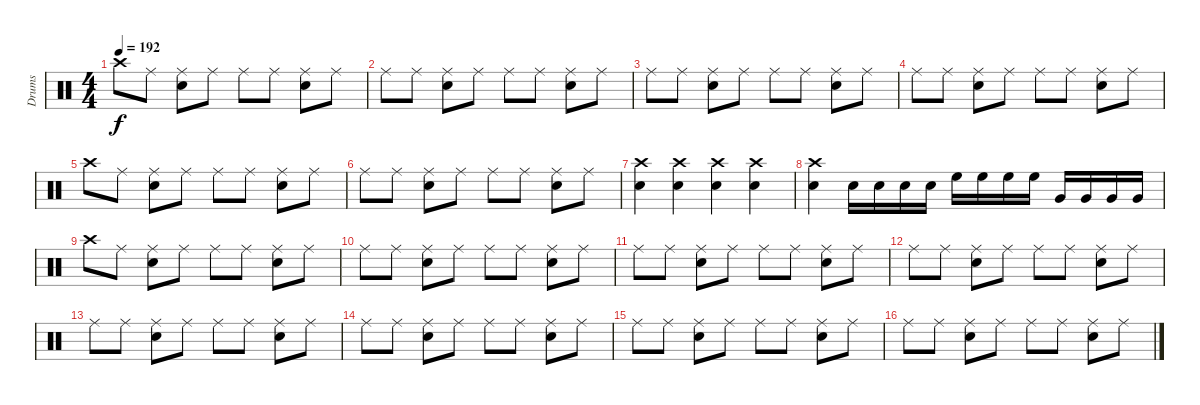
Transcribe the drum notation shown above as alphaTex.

\track ("Drums" "Drums") {instrument percussion}
\staff {score}
\articulation defaults
\ts (4 4)
\tempo 192
\clef neutral
\ks c "Crash high (hit)".8{dy f} "Ride (middle)".8
("Ride (middle)" "Snare (hit) 2").8 "Ride (middle)".8 "Ride (middle)".8 "Ride (middle)".8 ("Ride (middle)" "Snare (hit) 2").8 "Ride (middle)".8 |
"Ride (middle)".8 "Ride (middle)".8 ("Ride (middle)" "Snare (hit) 2").8 "Ride (middle)".8 "Ride (middle)".8 "Ride (middle)".8 ("Ride (middle)" "Snare (hit) 2").8 "Ride (middle)".8 |
"Ride (middle)".8 "Ride (middle)".8 ("Ride (middle)" "Snare (hit) 2").8 "Ride (middle)".8 "Ride (middle)".8 "Ride (middle)".8 ("Ride (middle)" "Snare (hit) 2").8 "Ride (middle)".8 |
"Ride (middle)".8 "Ride (middle)".8 ("Ride (middle)" "Snare (hit) 2").8 "Ride (middle)".8 "Ride (middle)".8 "Ride (middle)".8 ("Ride (middle)" "Snare (hit) 2").8 "Ride (middle)".8 |
"Crash high (hit)".8 "Ride (middle)".8 ("Ride (middle)" "Snare (hit) 2").8 "Ride (middle)".8 "Ride (middle)".8 "Ride (middle)".8 ("Ride (middle)" "Snare (hit) 2").8 "Ride (middle)".8 |
"Ride (middle)".8 "Ride (middle)".8 ("Ride (middle)" "Snare (hit) 2").8 "Ride (middle)".8 "Ride (middle)".8 "Ride (middle)".8 ("Ride (middle)" "Snare (hit) 2").8 "Ride (middle)".8 |
("Crash high (hit)" "Snare (hit) 2").4 ("Crash high (hit)" "Snare (hit) 2").4 ("Crash high (hit)" "Snare (hit) 2").4 ("Crash high (hit)" "Snare (hit) 2").4 |
("Crash high (hit)" "Snare (hit) 2").4 "Snare (hit) 2".16 "Snare (hit) 2".16 "Snare (hit) 2".16 "Snare (hit) 2".16 "High Floor Tom (hit)".16 "High Floor Tom (hit)".16 "High Floor Tom (hit)".16 "High Floor Tom (hit)".16 "Very Low Tom (hit)".16 "Very Low Tom (hit)".16 "Very Low Tom (hit)".16 "Very Low Tom (hit)".16 |
"Crash high (hit)".8 "Ride (middle)".8 ("Ride (middle)" "Snare (hit) 2").8 "Ride (middle)".8 "Ride (middle)".8 "Ride (middle)".8 ("Ride (middle)" "Snare (hit) 2").8 "Ride (middle)".8 |
"Ride (middle)".8 "Ride (middle)".8 ("Ride (middle)" "Snare (hit) 2").8 "Ride (middle)".8 "Ride (middle)".8 "Ride (middle)".8 ("Ride (middle)" "Snare (hit) 2").8 "Ride (middle)".8 |
"Ride (middle)".8 "Ride (middle)".8 ("Ride (middle)" "Snare (hit) 2").8 "Ride (middle)".8 "Ride (middle)".8 "Ride (middle)".8 ("Ride (middle)" "Snare (hit) 2").8 "Ride (middle)".8 |
"Ride (middle)".8 "Ride (middle)".8 ("Ride (middle)" "Snare (hit) 2").8 "Ride (middle)".8 "Ride (middle)".8 "Ride (middle)".8 ("Ride (middle)" "Snare (hit) 2").8 "Ride (middle)".8 |
"Ride (middle)".8 "Ride (middle)".8 ("Ride (middle)" "Snare (hit) 2").8 "Ride (middle)".8 "Ride (middle)".8 "Ride (middle)".8 ("Ride (middle)" "Snare (hit) 2").8 "Ride (middle)".8 |
"Ride (middle)".8 "Ride (middle)".8 ("Ride (middle)" "Snare (hit) 2").8 "Ride (middle)".8 "Ride (middle)".8 "Ride (middle)".8 ("Ride (middle)" "Snare (hit) 2").8 "Ride (middle)".8 |
"Ride (middle)".8 "Ride (middle)".8 ("Ride (middle)" "Snare (hit) 2").8 "Ride (middle)".8 "Ride (middle)".8 "Ride (middle)".8 ("Ride (middle)" "Snare (hit) 2").8 "Ride (middle)".8 |
"Ride (middle)".8 "Ride (middle)".8 ("Ride (middle)" "Snare (hit) 2").8 "Ride (middle)".8 "Ride (middle)".8 "Ride (middle)".8 ("Ride (middle)" "Snare (hit) 2").8 "Ride (middle)".8
